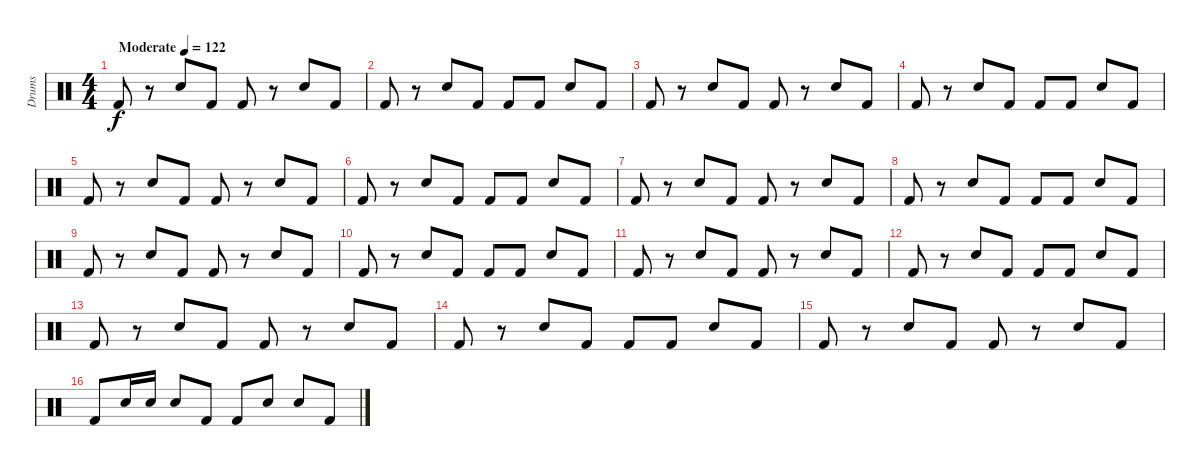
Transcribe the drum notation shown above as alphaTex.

\track ("Drums" "Drums") {instrument percussion}
\staff {score}
\articulation defaults
\ts (4 4)
\tempo (122 "Moderate")
\clef neutral
\ks c "Kick (hit) 2".8{dy f}
r.8 "Electric Snare (hit)".8 "Kick (hit) 2".8 "Kick (hit) 2".8 r.8 "Electric Snare (hit)".8 "Kick (hit) 2".8 |
"Kick (hit) 2".8 r.8 "Electric Snare (hit)".8 "Kick (hit) 2".8 "Kick (hit) 2".8 "Kick (hit) 2".8 "Electric Snare (hit)".8 "Kick (hit) 2".8 |
"Kick (hit) 2".8 r.8 "Electric Snare (hit)".8 "Kick (hit) 2".8 "Kick (hit) 2".8 r.8 "Electric Snare (hit)".8 "Kick (hit) 2".8 |
"Kick (hit) 2".8 r.8 "Electric Snare (hit)".8 "Kick (hit) 2".8 "Kick (hit) 2".8 "Kick (hit) 2".8 "Electric Snare (hit)".8 "Kick (hit) 2".8 |
"Kick (hit) 2".8 r.8 "Electric Snare (hit)".8 "Kick (hit) 2".8 "Kick (hit) 2".8 r.8 "Electric Snare (hit)".8 "Kick (hit) 2".8 |
"Kick (hit) 2".8 r.8 "Electric Snare (hit)".8 "Kick (hit) 2".8 "Kick (hit) 2".8 "Kick (hit) 2".8 "Electric Snare (hit)".8 "Kick (hit) 2".8 |
"Kick (hit) 2".8 r.8 "Electric Snare (hit)".8 "Kick (hit) 2".8 "Kick (hit) 2".8 r.8 "Electric Snare (hit)".8 "Kick (hit) 2".8 |
"Kick (hit) 2".8 r.8 "Electric Snare (hit)".8 "Kick (hit) 2".8 "Kick (hit) 2".8 "Kick (hit) 2".8 "Electric Snare (hit)".8 "Kick (hit) 2".8 |
"Kick (hit) 2".8 r.8 "Electric Snare (hit)".8 "Kick (hit) 2".8 "Kick (hit) 2".8 r.8 "Electric Snare (hit)".8 "Kick (hit) 2".8 |
"Kick (hit) 2".8 r.8 "Electric Snare (hit)".8 "Kick (hit) 2".8 "Kick (hit) 2".8 "Kick (hit) 2".8 "Electric Snare (hit)".8 "Kick (hit) 2".8 |
"Kick (hit) 2".8 r.8 "Electric Snare (hit)".8 "Kick (hit) 2".8 "Kick (hit) 2".8 r.8 "Electric Snare (hit)".8 "Kick (hit) 2".8 |
"Kick (hit) 2".8 r.8 "Electric Snare (hit)".8 "Kick (hit) 2".8 "Kick (hit) 2".8 "Kick (hit) 2".8 "Electric Snare (hit)".8 "Kick (hit) 2".8 |
"Kick (hit) 2".8 r.8 "Electric Snare (hit)".8 "Kick (hit) 2".8 "Kick (hit) 2".8 r.8 "Electric Snare (hit)".8 "Kick (hit) 2".8 |
"Kick (hit) 2".8 r.8 "Electric Snare (hit)".8 "Kick (hit) 2".8 "Kick (hit) 2".8 "Kick (hit) 2".8 "Electric Snare (hit)".8 "Kick (hit) 2".8 |
"Kick (hit) 2".8 r.8 "Electric Snare (hit)".8 "Kick (hit) 2".8 "Kick (hit) 2".8 r.8 "Electric Snare (hit)".8 "Kick (hit) 2".8 |
"Kick (hit) 2".8 "Electric Snare (hit)".16 "Electric Snare (hit)".16 "Electric Snare (hit)".8 "Kick (hit) 2".8 "Kick (hit) 2".8 "Electric Snare (hit)".8 "Electric Snare (hit)".8 "Kick (hit) 2".8
